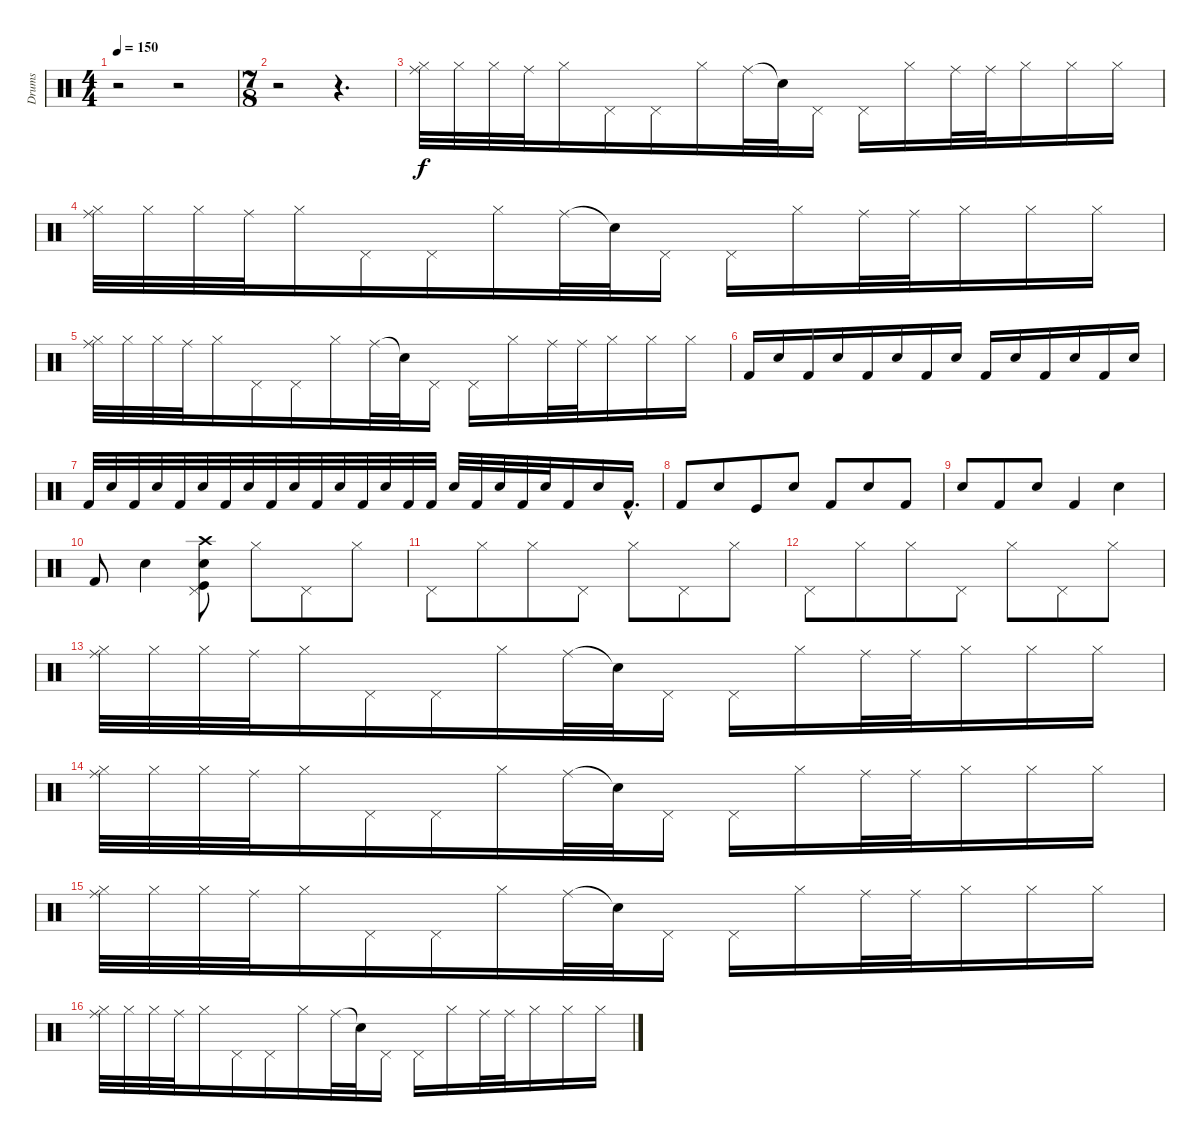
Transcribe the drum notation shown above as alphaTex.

\track ("Drums" "Drums") {instrument percussion}
\staff {score}
\articulation defaults
\ts (4 4)
\tempo 150
\clef neutral
\ks c
r.2{dy f} r.2 |
\ts (7 8)
r.2 r.4{d} |
("Hi-Hat (closed)" "Ride (middle)").32 "Hi-Hat (closed)".32 "Hi-Hat (closed)".32 "Ride (middle)".32 "Hi-Hat (closed)".16 "Pedal Hi-Hat (hit)".16 "Pedal Hi-Hat (hit)".16 "Hi-Hat (closed)".16 "Ride (middle)".32 "Snare (hit)"{t}.32 "Pedal Hi-Hat (hit)".16 "Pedal Hi-Hat (hit)".16 "Hi-Hat (closed)".16 "Ride (middle)".32 "Ride (middle)".32 "Hi-Hat (closed)".16 "Hi-Hat (closed)".16 "Hi-Hat (closed)".16 |
("Hi-Hat (closed)" "Ride (middle)").32 "Hi-Hat (closed)".32 "Hi-Hat (closed)".32 "Ride (middle)".32 "Hi-Hat (closed)".16 "Pedal Hi-Hat (hit)".16 "Pedal Hi-Hat (hit)".16 "Hi-Hat (closed)".16 "Ride (middle)".32 "Snare (hit)"{t}.32 "Pedal Hi-Hat (hit)".16 "Pedal Hi-Hat (hit)".16 "Hi-Hat (closed)".16 "Ride (middle)".32 "Ride (middle)".32 "Hi-Hat (closed)".16 "Hi-Hat (closed)".16 "Hi-Hat (closed)".16 |
("Hi-Hat (closed)" "Ride (middle)").32 "Hi-Hat (closed)".32 "Hi-Hat (closed)".32 "Ride (middle)".32 "Hi-Hat (closed)".16 "Pedal Hi-Hat (hit)".16 "Pedal Hi-Hat (hit)".16 "Hi-Hat (closed)".16 "Ride (middle)".32 "Snare (hit)"{t}.32 "Pedal Hi-Hat (hit)".16 "Pedal Hi-Hat (hit)".16 "Hi-Hat (closed)".16 "Ride (middle)".32 "Ride (middle)".32 "Hi-Hat (closed)".16 "Hi-Hat (closed)".16 "Hi-Hat (closed)".16 |
"Kick (hit) 2".16 "Snare (hit) 2".16 "Kick (hit) 2".16 "Snare (hit) 2".16 "Kick (hit) 2".16 "Snare (hit) 2".16 "Kick (hit) 2".16 "Snare (hit) 2".16 "Kick (hit) 2".16 "Snare (hit) 2".16 "Kick (hit) 2".16 "Snare (hit) 2".16 "Kick (hit) 2".16 "Snare (hit) 2".16 |
"Kick (hit) 2".32 "Snare (hit) 2".32 "Kick (hit) 2".32 "Snare (hit) 2".32 "Kick (hit) 2".32 "Snare (hit) 2".32 "Kick (hit) 2".32 "Snare (hit) 2".32 "Kick (hit) 2".32 "Snare (hit) 2".32 "Kick (hit) 2".32 "Snare (hit) 2".32 "Kick (hit) 2".32 "Snare (hit) 2".32 "Kick (hit) 2".32 "Kick (hit) 2".32 "Snare (hit) 2".32 "Kick (hit) 2".32 "Snare (hit) 2".32 "Kick (hit) 2".32 "Snare (hit) 2".32 "Kick (hit) 2".16 "Snare (hit) 2".16 "Kick (hit) 2"{hac}.16{d} |
"Kick (hit) 2".8 "Snare (hit) 2".8 "Kick (hit)".8 "Snare (hit) 2".8 "Kick (hit) 2".8 "Snare (hit) 2".8 "Kick (hit) 2".8 |
"Snare (hit) 2".8 "Kick (hit) 2".8 "Snare (hit) 2".8 "Kick (hit) 2".4 "Snare (hit) 2".4 |
"Kick (hit) 2".8 "Snare (hit) 2".4 ("Pedal Hi-Hat (hit)" "Kick (hit)" "Snare (hit) 2" "Crash high (hit)").8 "Hi-Hat (closed)".8 "Pedal Hi-Hat (hit)".8 "Hi-Hat (closed)".8 |
"Pedal Hi-Hat (hit)".8 "Hi-Hat (closed)".8 "Hi-Hat (closed)".8 "Pedal Hi-Hat (hit)".8 "Hi-Hat (closed)".8 "Pedal Hi-Hat (hit)".8 "Hi-Hat (closed)".8 |
"Pedal Hi-Hat (hit)".8 "Hi-Hat (closed)".8 "Hi-Hat (closed)".8 "Pedal Hi-Hat (hit)".8 "Hi-Hat (closed)".8 "Pedal Hi-Hat (hit)".8 "Hi-Hat (closed)".8 |
("Hi-Hat (closed)" "Ride (middle)").32 "Hi-Hat (closed)".32 "Hi-Hat (closed)".32 "Ride (middle)".32 "Hi-Hat (closed)".16 "Pedal Hi-Hat (hit)".16 "Pedal Hi-Hat (hit)".16 "Hi-Hat (closed)".16 "Ride (middle)".32 "Snare (hit)"{t}.32 "Pedal Hi-Hat (hit)".16 "Pedal Hi-Hat (hit)".16 "Hi-Hat (closed)".16 "Ride (middle)".32 "Ride (middle)".32 "Hi-Hat (closed)".16 "Hi-Hat (closed)".16 "Hi-Hat (closed)".16 |
("Hi-Hat (closed)" "Ride (middle)").32 "Hi-Hat (closed)".32 "Hi-Hat (closed)".32 "Ride (middle)".32 "Hi-Hat (closed)".16 "Pedal Hi-Hat (hit)".16 "Pedal Hi-Hat (hit)".16 "Hi-Hat (closed)".16 "Ride (middle)".32 "Snare (hit)"{t}.32 "Pedal Hi-Hat (hit)".16 "Pedal Hi-Hat (hit)".16 "Hi-Hat (closed)".16 "Ride (middle)".32 "Ride (middle)".32 "Hi-Hat (closed)".16 "Hi-Hat (closed)".16 "Hi-Hat (closed)".16 |
("Hi-Hat (closed)" "Ride (middle)").32 "Hi-Hat (closed)".32 "Hi-Hat (closed)".32 "Ride (middle)".32 "Hi-Hat (closed)".16 "Pedal Hi-Hat (hit)".16 "Pedal Hi-Hat (hit)".16 "Hi-Hat (closed)".16 "Ride (middle)".32 "Snare (hit)"{t}.32 "Pedal Hi-Hat (hit)".16 "Pedal Hi-Hat (hit)".16 "Hi-Hat (closed)".16 "Ride (middle)".32 "Ride (middle)".32 "Hi-Hat (closed)".16 "Hi-Hat (closed)".16 "Hi-Hat (closed)".16 |
("Hi-Hat (closed)" "Ride (middle)").32 "Hi-Hat (closed)".32 "Hi-Hat (closed)".32 "Ride (middle)".32 "Hi-Hat (closed)".16 "Pedal Hi-Hat (hit)".16 "Pedal Hi-Hat (hit)".16 "Hi-Hat (closed)".16 "Ride (middle)".32 "Snare (hit)"{t}.32 "Pedal Hi-Hat (hit)".16 "Pedal Hi-Hat (hit)".16 "Hi-Hat (closed)".16 "Ride (middle)".32 "Ride (middle)".32 "Hi-Hat (closed)".16 "Hi-Hat (closed)".16 "Hi-Hat (closed)".16
